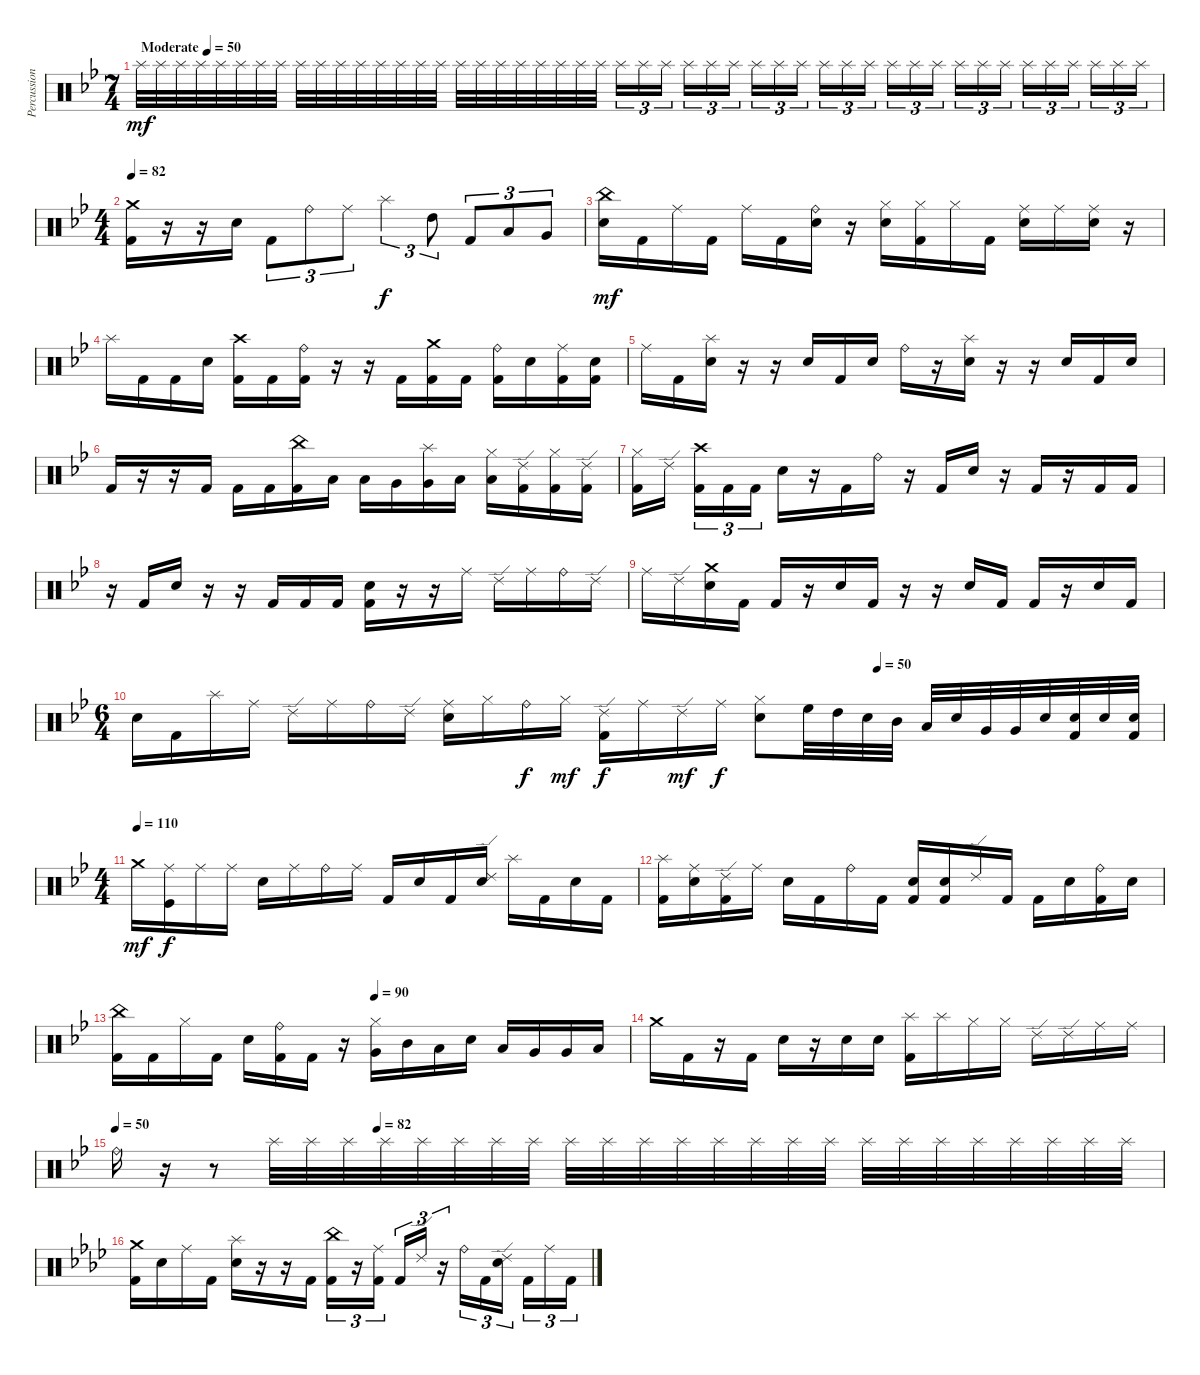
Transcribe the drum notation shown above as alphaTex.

\track ("Percussion" "Percussion") {instrument percussion}
\staff {score}
\articulation defaults
\ts (7 4)
\tempo (50 "Moderate")
\tempo 100
\tempo (50 "Moderate")
\clef neutral
\ks bb "Splash (hit)".32{dy mf} "Splash (hit)".32 "Splash (hit)".32 "Splash (hit)".32 "Splash (hit)".32 "Splash (hit)".32 "Splash (hit)".32 "Splash (hit)".32 "Splash (hit)".32 "Splash (hit)".32 "Splash (hit)".32 "Splash (hit)".32 "Splash (hit)".32 "Splash (hit)".32 "Splash (hit)".32 "Splash (hit)".32 "Splash (hit)".32 "Splash (hit)".32 "Splash (hit)".32 "Splash (hit)".32 "Splash (hit)".32 "Splash (hit)".32 "Splash (hit)".32 "Splash (hit)".32 "Splash (hit)".16{tu (3 2)} "Splash (hit)".16{tu (3 2)} "Splash (hit)".16{tu (3 2) beam splitsecondary} "Splash (hit)".16{tu (3 2)} "Splash (hit)".16{tu (3 2)} "Splash (hit)".16{tu (3 2)} "Splash (hit)".16{tu (3 2)} "Splash (hit)".16{tu (3 2)} "Splash (hit)".16{tu (3 2) beam splitsecondary} "Splash (hit)".16{tu (3 2)} "Splash (hit)".16{tu (3 2)} "Splash (hit)".16{tu (3 2)} "Splash (hit)".16{tu (3 2)} "Splash (hit)".16{tu (3 2)} "Splash (hit)".16{tu (3 2) beam splitsecondary} "Splash (hit)".16{tu (3 2)} "Splash (hit)".16{tu (3 2)} "Splash (hit)".16{tu (3 2)} "Splash (hit)".16{tu (3 2)} "Splash (hit)".16{tu (3 2)} "Splash (hit)".16{tu (3 2) beam splitsecondary} "Splash (hit)".16{tu (3 2)} "Splash (hit)".16{tu (3 2)} "Splash (hit)".16{tu (3 2)}
|
\ts (4 4)
\tempo 82
("Crash medium (hit)" "Kick (hit) 2").16 r.16 r.16 "Electric Snare (hit)".16 "Kick (hit) 2".8{tu (3 2)} "Ride (bell)".8{tu (3 2)} "Ride (middle)".8{tu (3 2)} "Splash (hit)".4{tu (3 2) dy f} "High Tom (hit)".8{tu (3 2)} "Kick (hit) 2".8{tu (3 2)} "Low Tom (hit)".8{tu (3 2)} "Very Low Tom (hit)".8{tu (3 2)} |
("China (hit)" "Electric Snare (hit)").16{dy mf} "Kick (hit) 2".16 "Ride (middle)".16 "Kick (hit) 2".16 "Ride (middle)".16 "Kick (hit) 2".16 ("Ride (bell)" "Electric Snare (hit)").16 r.16 ("Hi-Hat (closed)" "Electric Snare (hit)").16 ("Hi-Hat (closed)" "Kick (hit) 2").16 "Hi-Hat (closed)".16 "Kick (hit) 2".16 ("Ride (middle)" "Electric Snare (hit)").16 "Ride (middle)".16 ("Ride (middle)" "Electric Snare (hit)").16 r.16 |
"Splash (hit)".16 "Kick (hit) 2".16 "Kick (hit) 2".16 "Electric Snare (hit)".16 ("Crash high (hit)" "Kick (hit) 2").16 "Kick (hit) 2".16 ("Ride (bell)" "Kick (hit) 2").16 r.16 r.16 "Kick (hit) 2".16 ("Crash medium (hit)" "Kick (hit) 2").16 "Kick (hit) 2".16 ("Ride (bell)" "Kick (hit) 2").16 "Electric Snare (hit)".16 ("Ride (middle)" "Kick (hit) 2").16 ("Electric Snare (hit)" "Kick (hit) 2").16 |
"Ride (middle)".16 "Kick (hit) 2".16 ("Splash (hit)" "Electric Snare (hit)").16 r.16 r.16 "Electric Snare (hit)".16 "Kick (hit) 2".16 "Electric Snare (hit)".16 "Ride (bell)".16 r.16 ("Splash (hit)" "Electric Snare (hit)").16 r.16 r.16 "Electric Snare (hit)".16 "Kick (hit) 2".16 "Electric Snare (hit)".16 |
"Kick (hit) 2".16 r.16 r.16 "Kick (hit) 2".16 "Kick (hit) 2".16 "Kick (hit) 2".16 ("China (hit)" "Kick (hit) 2").16 "Low Tom (hit)".16 "Low Tom (hit)".16 "Very Low Tom (hit)".16 ("Splash (hit)" "Very Low Tom (hit)").16 "Low Floor Tom (hit)".16 ("Hi-Hat (closed)" "Low Floor Tom (hit)").16 ("Ride (edge) 2" "Kick (hit) 2").16 ("Hi-Hat (closed)" "Kick (hit) 2").16 ("Ride (edge) 2" "Kick (hit) 2").16 |
("Hi-Hat (closed)" "Kick (hit) 2").16 "Ride (edge) 2".16{beam splitsecondary} ("Crash high (hit)" "Kick (hit) 2").16{tu (3 2)} "Kick (hit) 2".16{tu (3 2)} "Kick (hit) 2".16{tu (3 2)} "Electric Snare (hit)".16 r.16 "Kick (hit) 2".16 "Ride (bell)".16 r.16 "Kick (hit) 2".16 "Electric Snare (hit)".16 r.16 "Kick (hit) 2".16 r.16 "Kick (hit) 2".16 "Kick (hit) 2".16 |
r.16 "Kick (hit) 2".16 "Electric Snare (hit)".16 r.16 r.16 "Kick (hit) 2".16 "Kick (hit) 2".16 "Kick (hit) 2".16 ("Electric Snare (hit)" "Kick (hit) 2").16 r.16 r.16 "Ride (middle)".16 "Ride (edge) 2".16 "Ride (middle)".16 "Ride (bell)".16 "Ride (edge) 2".16 |
"Ride (middle)".16 "Ride (edge) 2".16 ("Crash medium (hit)" "Electric Snare (hit)").16 "Kick (hit) 2".16 "Kick (hit) 2".16 r.16 "Electric Snare (hit)".16 "Kick (hit) 2".16 r.16 r.16 "Electric Snare (hit)".16 "Kick (hit) 2".16 "Kick (hit) 2".16 r.16 "Electric Snare (hit)".16 "Kick (hit) 2".16 |
\ts (6 4)
\tempo (50 0.7222222222222222)
"Electric Snare (hit)".16 "Kick (hit) 2".16 "Splash (hit)".16 "Ride (middle)".16 "Ride (edge) 2".16 "Ride (middle)".16 "Ride (bell)".16 "Ride (edge) 2".16 ("Ride (middle)" "Electric Snare (hit)").16 "Hi-Hat (closed)".16 "Ride (bell)".16{dy f} "Hi-Hat (closed)".16{dy mf} ("Ride (edge) 2" "Kick (hit) 2").16{dy f} "Ride (middle)".16 "Ride (edge) 2".16{dy mf} "Ride (middle)".16{dy f} ("Hi-Hat (closed)" "Electric Snare (hit)").8 "High Floor Tom (hit)".32 "High Tom (hit)".32 "Electric Snare (hit)".32 "Mid Tom (hit)".32 "Low Tom (hit)".32 "Electric Snare (hit)".32 "Very Low Tom (hit)".32 "Very Low Tom (hit)".32 "Electric Snare (hit)".32 ("Electric Snare (hit)" "Kick (hit) 2").32 "Electric Snare (hit)".32 ("Electric Snare (hit)" "Kick (hit) 2").32 |
\ts (4 4)
\tempo (110)
"Crash medium (hit)".16{dy mf} ("Ride (middle)" "Kick (hit)").16{dy f} "Ride (middle)".16 "Ride (middle)".16 "Electric Snare (hit)".16 "Ride (middle)".16 "Ride (bell)".16 "Ride (middle)".16 "Kick (hit) 2".16 "Electric Snare (hit)".16 "Kick (hit) 2".16 ("Ride (edge) 2" "Electric Snare (hit)").16 "Splash (hit)".16 "Kick (hit) 2".16 "Electric Snare (hit)".16 "Kick (hit) 2".16 |
("Splash (hit)" "Kick (hit) 2").16 ("Ride (middle)" "Electric Snare (hit)").16 ("Ride (edge) 2" "Kick (hit) 2").16 "Ride (middle)".16 "Electric Snare (hit)".16 "Kick (hit) 2".16 "Ride (bell)".16 "Kick (hit) 2".16 ("Electric Snare (hit)" "Kick (hit) 2").16 ("Electric Snare (hit)" "Kick (hit) 2").16 "Ride (edge) 2".16 "Kick (hit) 2".16 "Kick (hit) 2".16 "Electric Snare (hit)".16 ("Ride (bell)" "Kick (hit) 2").16 "Electric Snare (hit)".16 |
\tempo (90 0.5)
("China (hit)" "Kick (hit) 2").16 "Kick (hit) 2".16 "Hi-Hat (closed)".16 "Kick (hit) 2".16 "Electric Snare (hit)".16 ("Ride (bell)" "Kick (hit) 2").16 "Kick (hit) 2".16 r.16 ("Hi-Hat (closed)" "Very Low Tom (hit)").16 "Mid Tom (hit)".16 "Low Tom (hit)".16 "Electric Snare (hit)".16 "Low Tom (hit)".16 "Very Low Tom (hit)".16 "Very Low Tom (hit)".16 "Low Floor Tom (hit)".16 |
"Crash medium (hit)".16 "Kick (hit) 2".16 r.16 "Kick (hit) 2".16 "Electric Snare (hit)".16 r.16 "Electric Snare (hit)".16 "Electric Snare (hit)".16 ("Splash (hit)" "Kick (hit) 2").16 "Splash (hit)".16 "Hi-Hat (closed)".16 "Hi-Hat (closed)".16 "Ride (edge) 2".16 "Ride (edge) 2".16 "Ride (middle)".16 "Ride (middle)".16 |
\tempo 50
\tempo (82 0.25)
"Ride (bell)".16 r.16 r.8 "Splash (hit)".32 "Splash (hit)".32 "Splash (hit)".32 "Splash (hit)".32 "Splash (hit)".32 "Splash (hit)".32 "Splash (hit)".32 "Splash (hit)".32 "Splash (hit)".32 "Splash (hit)".32 "Splash (hit)".32 "Splash (hit)".32 "Splash (hit)".32 "Splash (hit)".32 "Splash (hit)".32 "Splash (hit)".32 "Splash (hit)".32 "Splash (hit)".32 "Splash (hit)".32 "Splash (hit)".32 "Splash (hit)".32 "Splash (hit)".32 "Splash (hit)".32 "Splash (hit)".32 |
\ks ab
("Crash medium (hit)" "Kick (hit) 2").16 "Electric Snare (hit)".16 "Ride (middle)".16 "Kick (hit) 2".16 ("Splash (hit)" "Electric Snare (hit)").16 r.16 r.16 "Kick (hit) 2".16 ("China (hit)" "Kick (hit) 2").16{tu (3 2)} r.16{tu (3 2)} ("Ride (middle)" "Kick (hit) 2").16{tu (3 2) beam splitsecondary} "Kick (hit) 2".16{tu (3 2)} "Ride (edge) 2".16{tu (3 2)} r.16{tu (3 2)} "Ride (bell)".16{tu (3 2)} "Kick (hit) 2".16{tu (3 2)} ("Ride (edge) 2" "Electric Snare (hit)").16{tu (3 2) beam splitsecondary} "Kick (hit) 2".16{tu (3 2)} "Ride (middle)".16{tu (3 2)} "Kick (hit) 2".16{tu (3 2)}
